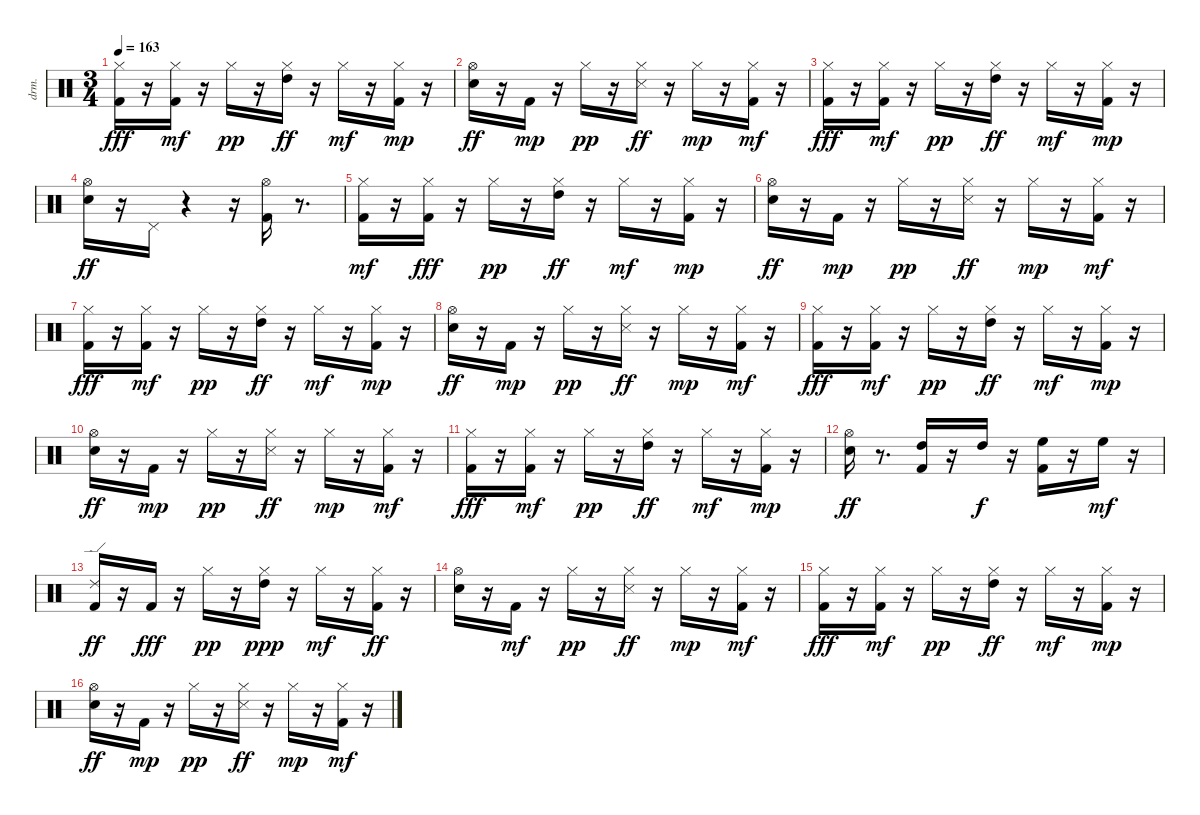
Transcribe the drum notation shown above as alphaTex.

\bracketExtendMode nobrackets
\track ("EZdrummer 3" "drm.") {instrument percussion}
\staff {score}
\articulation defaults
\ts (3 4)
\tempo 163
\clef neutral
\ks aminor
("Kick (hit) 2" "Hi-Hat (closed)"{acc #}).16{dy fff beam Down} r.16{beam Down} ("Kick (hit) 2" "Hi-Hat (closed)"{acc #}).16{dy mf beam Down} r.16{beam Down} "Hi-Hat (closed)"{acc #}.16{dy pp beam Down} r.16{beam Down} ("Hi-Hat (closed)"{acc #} "High Tom (hit)").16{dy ff beam Down} r.16{beam Down} "Hi-Hat (closed)"{acc #}.16{dy mf beam Down} r.16{beam Down} ("Kick (hit) 2" "Hi-Hat (closed)"{acc #}).16{dy mp beam Down} r.16{beam Down} |
("Snare (hit) 2" "Hi-Hat (open)"{acc #}).16{dy ff beam Down} r.16{beam Down} "Kick (hit) 2".16{dy mp beam Down} r.16{beam Down} "Hi-Hat (closed)"{acc #}.16{dy pp beam Down} r.16{beam Down} ("Snare (side stick) 3"{acc #} "Hi-Hat (closed)"{acc #}).16{dy ff beam Down} r.16{beam Down} "Hi-Hat (closed)"{acc #}.16{dy mp beam Down} r.16{beam Down} ("Kick (hit) 2" "Hi-Hat (closed)"{acc #}).16{dy mf beam Down} r.16{beam Down} |
("Kick (hit) 2" "Hi-Hat (closed)"{acc #}).16{dy fff beam Down} r.16{beam Down} ("Kick (hit) 2" "Hi-Hat (closed)"{acc #}).16{dy mf beam Down} r.16{beam Down} "Hi-Hat (closed)"{acc #}.16{dy pp beam Down} r.16{beam Down} ("Hi-Hat (closed)"{acc #} "High Tom (hit)").16{dy ff beam Down} r.16{beam Down} "Hi-Hat (closed)"{acc #}.16{dy mf beam Down} r.16{beam Down} ("Kick (hit) 2" "Hi-Hat (closed)"{acc #}).16{dy mp beam Down} r.16{beam Down} |
("Snare (hit) 2" "Hi-Hat (open)"{acc #}).16{dy ff beam Down} r.16{beam Down} "Pedal Hi-Hat (hit)"{acc #}.16{beam Down} r.4{beam Down} r.16{beam Down} ("Kick (hit) 2" "Hi-Hat (open)"{acc #}).16{beam Down} r.8{d beam Down} |
("Kick (hit) 2" "Hi-Hat (closed)"{acc #}).16{dy mf beam Down} r.16{beam Down} ("Kick (hit) 2" "Hi-Hat (closed)"{acc #}).16{dy fff beam Down} r.16{beam Down} "Hi-Hat (closed)"{acc #}.16{dy pp beam Down} r.16{beam Down} ("Hi-Hat (closed)"{acc #} "High Tom (hit)").16{dy ff beam Down} r.16{beam Down} "Hi-Hat (closed)"{acc #}.16{dy mf beam Down} r.16{beam Down} ("Kick (hit) 2" "Hi-Hat (closed)"{acc #}).16{dy mp beam Down} r.16{beam Down} |
("Snare (hit) 2" "Hi-Hat (open)"{acc #}).16{dy ff beam Down} r.16{beam Down} "Kick (hit) 2".16{dy mp beam Down} r.16{beam Down} "Hi-Hat (closed)"{acc #}.16{dy pp beam Down} r.16{beam Down} ("Snare (side stick) 3"{acc #} "Hi-Hat (closed)"{acc #}).16{dy ff beam Down} r.16{beam Down} "Hi-Hat (closed)"{acc #}.16{dy mp beam Down} r.16{beam Down} ("Kick (hit) 2" "Hi-Hat (closed)"{acc #}).16{dy mf beam Down} r.16{beam Down} |
("Kick (hit) 2" "Hi-Hat (closed)"{acc #}).16{dy fff beam Down} r.16{beam Down} ("Kick (hit) 2" "Hi-Hat (closed)"{acc #}).16{dy mf beam Down} r.16{beam Down} "Hi-Hat (closed)"{acc #}.16{dy pp beam Down} r.16{beam Down} ("Hi-Hat (closed)"{acc #} "High Tom (hit)").16{dy ff beam Down} r.16{beam Down} "Hi-Hat (closed)"{acc #}.16{dy mf beam Down} r.16{beam Down} ("Kick (hit) 2" "Hi-Hat (closed)"{acc #}).16{dy mp beam Down} r.16{beam Down} |
("Snare (hit) 2" "Hi-Hat (open)"{acc #}).16{dy ff beam Down} r.16{beam Down} "Kick (hit) 2".16{dy mp beam Down} r.16{beam Down} "Hi-Hat (closed)"{acc #}.16{dy pp beam Down} r.16{beam Down} ("Snare (side stick) 3"{acc #} "Hi-Hat (closed)"{acc #}).16{dy ff beam Down} r.16{beam Down} "Hi-Hat (closed)"{acc #}.16{dy mp beam Down} r.16{beam Down} ("Kick (hit) 2" "Hi-Hat (closed)"{acc #}).16{dy mf beam Down} r.16{beam Down} |
("Kick (hit) 2" "Hi-Hat (closed)"{acc #}).16{dy fff beam Down} r.16{beam Down} ("Kick (hit) 2" "Hi-Hat (closed)"{acc #}).16{dy mf beam Down} r.16{beam Down} "Hi-Hat (closed)"{acc #}.16{dy pp beam Down} r.16{beam Down} ("Hi-Hat (closed)"{acc #} "High Tom (hit)").16{dy ff beam Down} r.16{beam Down} "Hi-Hat (closed)"{acc #}.16{dy mf beam Down} r.16{beam Down} ("Kick (hit) 2" "Hi-Hat (closed)"{acc #}).16{dy mp beam Down} r.16{beam Down} |
("Snare (hit) 2" "Hi-Hat (open)"{acc #}).16{dy ff beam Down} r.16{beam Down} "Kick (hit) 2".16{dy mp beam Down} r.16{beam Down} "Hi-Hat (closed)"{acc #}.16{dy pp beam Down} r.16{beam Down} ("Snare (side stick) 3"{acc #} "Hi-Hat (closed)"{acc #}).16{dy ff beam Down} r.16{beam Down} "Hi-Hat (closed)"{acc #}.16{dy mp beam Down} r.16{beam Down} ("Kick (hit) 2" "Hi-Hat (closed)"{acc #}).16{dy mf beam Down} r.16{beam Down} |
("Kick (hit) 2" "Hi-Hat (closed)"{acc #}).16{dy fff beam Down} r.16{beam Down} ("Kick (hit) 2" "Hi-Hat (closed)"{acc #}).16{dy mf beam Down} r.16{beam Down} "Hi-Hat (closed)"{acc #}.16{dy pp beam Down} r.16{beam Down} ("Hi-Hat (closed)"{acc #} "High Tom (hit)").16{dy ff beam Down} r.16{beam Down} "Hi-Hat (closed)"{acc #}.16{dy mf beam Down} r.16{beam Down} ("Kick (hit) 2" "Hi-Hat (closed)"{acc #}).16{dy mp beam Down} r.16{beam Down} |
("Snare (hit) 2" "Hi-Hat (open)"{acc #}).16{dy ff beam Down} r.8{d beam Down} ("Kick (hit) 2" "High Tom (hit)").16{beam Up} r.16{beam Up} "High Tom (hit)".16{dy f beam Up} r.16{beam Down} ("Kick (hit) 2" "High Floor Tom (hit)").16{beam Down} r.16{beam Down} "High Floor Tom (hit)".16{dy mf beam Down} r.16{beam Down} |
("Kick (hit) 2" "Ride (edge) 2").16{dy ff beam Up} r.16{beam Up} "Kick (hit) 2".16{dy fff beam Up} r.16{beam Down} "Hi-Hat (closed)"{acc #}.16{dy pp beam Down} r.16{beam Down} ("Hi-Hat (closed)"{acc #} "High Tom (hit)").16{dy ppp beam Down} r.16{beam Down} "Hi-Hat (closed)"{acc #}.16{dy mf beam Down} r.16{beam Down} ("Kick (hit) 2" "Hi-Hat (closed)"{acc #}).16{dy ff beam Down} r.16{beam Down} |
("Snare (hit) 2" "Hi-Hat (open)"{acc #}).16{beam Down} r.16{beam Down} "Kick (hit) 2".16{dy mf beam Down} r.16{beam Down} "Hi-Hat (closed)"{acc #}.16{dy pp beam Down} r.16{beam Down} ("Snare (side stick) 3"{acc #} "Hi-Hat (closed)"{acc #}).16{dy ff beam Down} r.16{beam Down} "Hi-Hat (closed)"{acc #}.16{dy mp beam Down} r.16{beam Down} ("Kick (hit) 2" "Hi-Hat (closed)"{acc #}).16{dy mf beam Down} r.16{beam Down} |
("Kick (hit) 2" "Hi-Hat (closed)"{acc #}).16{dy fff beam Down} r.16{beam Down} ("Kick (hit) 2" "Hi-Hat (closed)"{acc #}).16{dy mf beam Down} r.16{beam Down} "Hi-Hat (closed)"{acc #}.16{dy pp beam Down} r.16{beam Down} ("Hi-Hat (closed)"{acc #} "High Tom (hit)").16{dy ff beam Down} r.16{beam Down} "Hi-Hat (closed)"{acc #}.16{dy mf beam Down} r.16{beam Down} ("Kick (hit) 2" "Hi-Hat (closed)"{acc #}).16{dy mp beam Down} r.16{beam Down} |
("Snare (hit) 2" "Hi-Hat (open)"{acc #}).16{dy ff beam Down} r.16{beam Down} "Kick (hit) 2".16{dy mp beam Down} r.16{beam Down} "Hi-Hat (closed)"{acc #}.16{dy pp beam Down} r.16{beam Down} ("Snare (side stick) 3"{acc #} "Hi-Hat (closed)"{acc #}).16{dy ff beam Down} r.16{beam Down} "Hi-Hat (closed)"{acc #}.16{dy mp beam Down} r.16{beam Down} ("Kick (hit) 2" "Hi-Hat (closed)"{acc #}).16{dy mf beam Down} r.16{beam Down}
